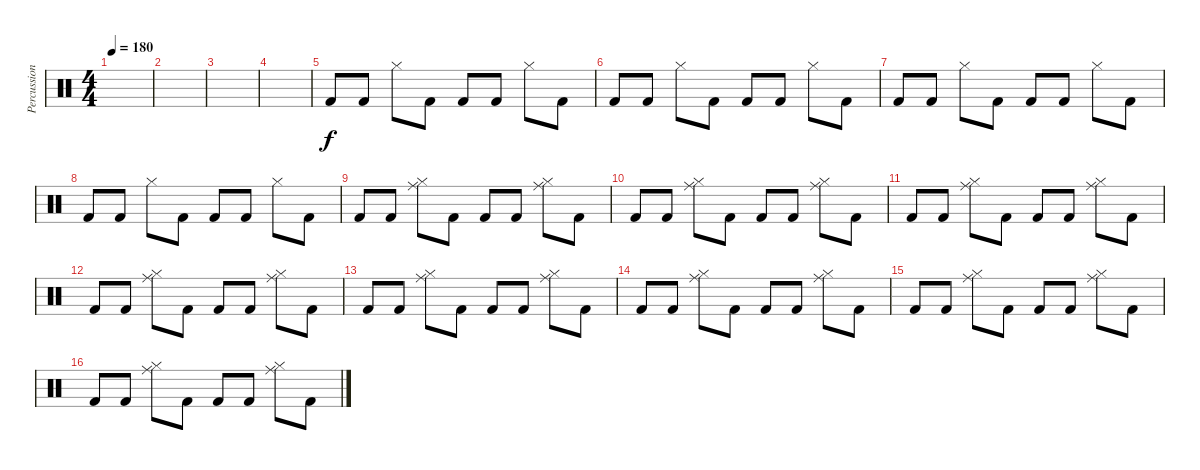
\track ("Percussions" "Percussion") {instrument percussion}
\staff {score}
\articulation defaults
\ts (4 4)
\tempo 180
\clef neutral
\ks c
|
|
|
|
"Kick (hit) 2".8 "Kick (hit) 2".8 "Hi-Hat (closed)".8 "Kick (hit) 2".8 "Kick (hit) 2".8 "Kick (hit) 2".8 "Hi-Hat (closed)".8 "Kick (hit) 2".8 |
"Kick (hit) 2".8 "Kick (hit) 2".8 "Hi-Hat (closed)".8 "Kick (hit) 2".8 "Kick (hit) 2".8 "Kick (hit) 2".8 "Hi-Hat (closed)".8 "Kick (hit) 2".8 |
"Kick (hit) 2".8 "Kick (hit) 2".8 "Hi-Hat (closed)".8 "Kick (hit) 2".8 "Kick (hit) 2".8 "Kick (hit) 2".8 "Hi-Hat (closed)".8 "Kick (hit) 2".8 |
"Kick (hit) 2".8 "Kick (hit) 2".8 "Hi-Hat (closed)".8 "Kick (hit) 2".8 "Kick (hit) 2".8 "Kick (hit) 2".8 "Hi-Hat (closed)".8 "Kick (hit) 2".8 |
"Kick (hit) 2".8 "Kick (hit) 2".8 ("Hi-Hat (closed)" "Ride (middle)").8 "Kick (hit) 2".8 "Kick (hit) 2".8 "Kick (hit) 2".8 ("Hi-Hat (closed)" "Ride (middle)").8 "Kick (hit) 2".8 |
"Kick (hit) 2".8 "Kick (hit) 2".8 ("Hi-Hat (closed)" "Ride (middle)").8 "Kick (hit) 2".8 "Kick (hit) 2".8 "Kick (hit) 2".8 ("Hi-Hat (closed)" "Ride (middle)").8 "Kick (hit) 2".8 |
"Kick (hit) 2".8 "Kick (hit) 2".8 ("Hi-Hat (closed)" "Ride (middle)").8 "Kick (hit) 2".8 "Kick (hit) 2".8 "Kick (hit) 2".8 ("Hi-Hat (closed)" "Ride (middle)").8 "Kick (hit) 2".8 |
"Kick (hit) 2".8 "Kick (hit) 2".8 ("Hi-Hat (closed)" "Ride (middle)").8 "Kick (hit) 2".8 "Kick (hit) 2".8 "Kick (hit) 2".8 ("Hi-Hat (closed)" "Ride (middle)").8 "Kick (hit) 2".8 |
"Kick (hit) 2".8 "Kick (hit) 2".8 ("Hi-Hat (closed)" "Ride (middle)").8 "Kick (hit) 2".8 "Kick (hit) 2".8 "Kick (hit) 2".8 ("Hi-Hat (closed)" "Ride (middle)").8 "Kick (hit) 2".8 |
"Kick (hit) 2".8 "Kick (hit) 2".8 ("Hi-Hat (closed)" "Ride (middle)").8 "Kick (hit) 2".8 "Kick (hit) 2".8 "Kick (hit) 2".8 ("Hi-Hat (closed)" "Ride (middle)").8 "Kick (hit) 2".8 |
"Kick (hit) 2".8 "Kick (hit) 2".8 ("Hi-Hat (closed)" "Ride (middle)").8 "Kick (hit) 2".8 "Kick (hit) 2".8 "Kick (hit) 2".8 ("Hi-Hat (closed)" "Ride (middle)").8 "Kick (hit) 2".8 |
"Kick (hit) 2".8 "Kick (hit) 2".8 ("Hi-Hat (closed)" "Ride (middle)").8 "Kick (hit) 2".8 "Kick (hit) 2".8 "Kick (hit) 2".8 ("Hi-Hat (closed)" "Ride (middle)").8 "Kick (hit) 2".8
